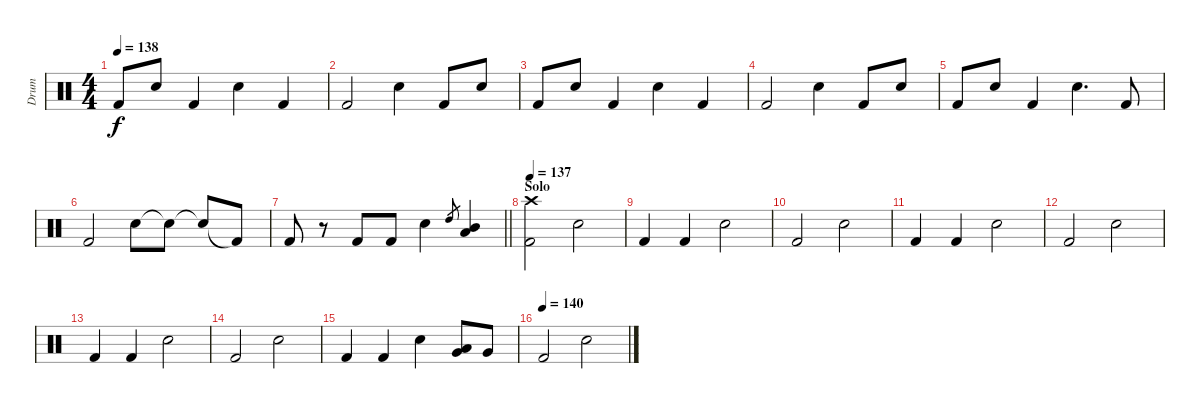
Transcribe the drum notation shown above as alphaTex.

\track ("Drum" "Drum") {instrument percussion}
\staff {score}
\articulation defaults
\ts (4 4)
\tempo 138
\clef neutral
\ks c "Kick (hit) 2".8{dy f} "Electric Snare (hit)".8 "Kick (hit) 2".4 "Electric Snare (hit)".4 "Kick (hit) 2".4
|
"Kick (hit) 2".2 "Electric Snare (hit)".4 "Kick (hit) 2".8 "Electric Snare (hit)".8 |
"Kick (hit) 2".8 "Electric Snare (hit)".8 "Kick (hit) 2".4 "Electric Snare (hit)".4 "Kick (hit) 2".4 |
"Kick (hit) 2".2 "Electric Snare (hit)".4 "Kick (hit) 2".8 "Electric Snare (hit)".8 |
"Kick (hit) 2".8 "Electric Snare (hit)".8 "Kick (hit) 2".4 "Electric Snare (hit)".4{d} "Kick (hit) 2".8 |
"Kick (hit) 2".2 "Electric Snare (hit)".8 "Snare (hit)"{t}.8 "Snare (hit)"{t}.8 "Kick (hit) 2"{t}.8 |
\barLineRight lightlight "Kick (hit) 2".8
r.8 "Kick (hit) 2".8 "Kick (hit) 2".8 "Electric Snare (hit)".4 "High Tom (hit)".8{gr} ("Low Floor Tom (hit)" "Mid Tom (hit)").4 |
\section ("" "Solo")
\tempo 137
("Crash high (hit)" "Kick (hit) 2").2 "Electric Snare (hit)".2 |
"Kick (hit) 2".4 "Kick (hit) 2".4 "Electric Snare (hit)".2 |
"Kick (hit) 2".2 "Electric Snare (hit)".2 |
"Kick (hit) 2".4 "Kick (hit) 2".4 "Electric Snare (hit)".2 |
"Kick (hit) 2".2 "Electric Snare (hit)".2 |
"Kick (hit) 2".4 "Kick (hit) 2".4 "Electric Snare (hit)".2 |
"Kick (hit) 2".2 "Electric Snare (hit)".2 |
"Kick (hit) 2".4 "Kick (hit) 2".4 "Electric Snare (hit)".4 ("Low Tom (hit)" "Very Low Tom (hit)").8 "Very Low Tom (hit)".8 |
\tempo (140)
"Kick (hit) 2".2 "Electric Snare (hit)".2
